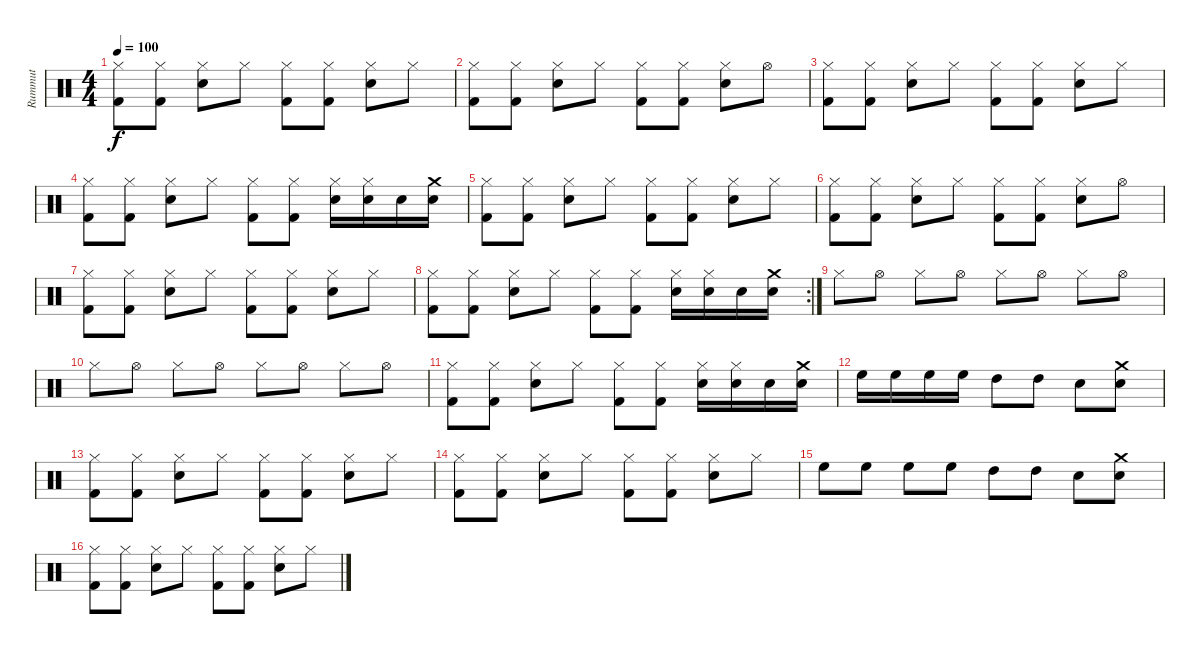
\track ("Rummut" "Rummut") {instrument percussion}
\staff {score}
\articulation defaults
\ts (4 4)
\tempo 100
\clef neutral
\ks c
("Hi-Hat (closed)" "Kick (hit) 2").8{dy f} ("Hi-Hat (closed)" "Kick (hit) 2").8 ("Hi-Hat (closed)" "Snare (hit) 2").8 "Hi-Hat (closed)".8 ("Hi-Hat (closed)" "Kick (hit) 2").8 ("Hi-Hat (closed)" "Kick (hit) 2").8 ("Hi-Hat (closed)" "Snare (hit) 2").8 "Hi-Hat (closed)".8 |
("Hi-Hat (closed)" "Kick (hit) 2").8 ("Hi-Hat (closed)" "Kick (hit) 2").8 ("Hi-Hat (closed)" "Snare (hit) 2").8 "Hi-Hat (closed)".8 ("Hi-Hat (closed)" "Kick (hit) 2").8 ("Hi-Hat (closed)" "Kick (hit) 2").8 ("Hi-Hat (closed)" "Snare (hit) 2").8 "Hi-Hat (open)".8 |
("Hi-Hat (closed)" "Kick (hit) 2").8 ("Hi-Hat (closed)" "Kick (hit) 2").8 ("Hi-Hat (closed)" "Snare (hit) 2").8 "Hi-Hat (closed)".8 ("Hi-Hat (closed)" "Kick (hit) 2").8 ("Hi-Hat (closed)" "Kick (hit) 2").8 ("Hi-Hat (closed)" "Snare (hit) 2").8 "Hi-Hat (closed)".8 |
("Hi-Hat (closed)" "Kick (hit) 2").8 ("Hi-Hat (closed)" "Kick (hit) 2").8 ("Hi-Hat (closed)" "Snare (hit) 2").8 "Hi-Hat (closed)".8 ("Hi-Hat (closed)" "Kick (hit) 2").8 ("Hi-Hat (closed)" "Kick (hit) 2").8 ("Hi-Hat (closed)" "Snare (hit) 2").16 ("Hi-Hat (closed)" "Snare (hit) 2").16 "Snare (hit) 2".16 ("Crash medium (hit)" "Snare (hit) 2").16 |
("Hi-Hat (closed)" "Kick (hit) 2").8 ("Hi-Hat (closed)" "Kick (hit) 2").8 ("Hi-Hat (closed)" "Snare (hit) 2").8 "Hi-Hat (closed)".8 ("Hi-Hat (closed)" "Kick (hit) 2").8 ("Hi-Hat (closed)" "Kick (hit) 2").8 ("Hi-Hat (closed)" "Snare (hit) 2").8 "Hi-Hat (closed)".8 |
("Hi-Hat (closed)" "Kick (hit) 2").8 ("Hi-Hat (closed)" "Kick (hit) 2").8 ("Hi-Hat (closed)" "Snare (hit) 2").8 "Hi-Hat (closed)".8 ("Hi-Hat (closed)" "Kick (hit) 2").8 ("Hi-Hat (closed)" "Kick (hit) 2").8 ("Hi-Hat (closed)" "Snare (hit) 2").8 "Hi-Hat (open)".8 |
("Hi-Hat (closed)" "Kick (hit) 2").8 ("Hi-Hat (closed)" "Kick (hit) 2").8 ("Hi-Hat (closed)" "Snare (hit) 2").8 "Hi-Hat (closed)".8 ("Hi-Hat (closed)" "Kick (hit) 2").8 ("Hi-Hat (closed)" "Kick (hit) 2").8 ("Hi-Hat (closed)" "Snare (hit) 2").8 "Hi-Hat (closed)".8 |
\rc 2
("Hi-Hat (closed)" "Kick (hit) 2").8 ("Hi-Hat (closed)" "Kick (hit) 2").8 ("Hi-Hat (closed)" "Snare (hit) 2").8 "Hi-Hat (closed)".8 ("Hi-Hat (closed)" "Kick (hit) 2").8 ("Hi-Hat (closed)" "Kick (hit) 2").8 ("Hi-Hat (closed)" "Snare (hit) 2").16 ("Hi-Hat (closed)" "Snare (hit) 2").16 "Snare (hit) 2".16 ("Crash medium (hit)" "Snare (hit) 2").16 |
"Hi-Hat (closed)".8 "Hi-Hat (open)".8 "Hi-Hat (closed)".8 "Hi-Hat (open)".8 "Hi-Hat (closed)".8 "Hi-Hat (open)".8 "Hi-Hat (closed)".8 "Hi-Hat (open)".8 |
"Hi-Hat (closed)".8 "Hi-Hat (open)".8 "Hi-Hat (closed)".8 "Hi-Hat (open)".8 "Hi-Hat (closed)".8 "Hi-Hat (open)".8 "Hi-Hat (closed)".8 "Hi-Hat (open)".8 |
("Hi-Hat (closed)" "Kick (hit) 2").8 ("Hi-Hat (closed)" "Kick (hit) 2").8 ("Hi-Hat (closed)" "Snare (hit) 2").8 "Hi-Hat (closed)".8 ("Hi-Hat (closed)" "Kick (hit) 2").8 ("Hi-Hat (closed)" "Kick (hit) 2").8 ("Hi-Hat (closed)" "Snare (hit) 2").16 ("Hi-Hat (closed)" "Snare (hit) 2").16 "Snare (hit) 2".16 ("Crash medium (hit)" "Snare (hit) 2").16 |
"High Floor Tom (hit)".16 "High Floor Tom (hit)".16 "High Floor Tom (hit)".16 "High Floor Tom (hit)".16 "High Tom (hit)".8 "High Tom (hit)".8 "Snare (hit) 2".8 ("Snare (hit) 2" "Crash medium (hit)").8 |
("Hi-Hat (closed)" "Kick (hit) 2").8 ("Hi-Hat (closed)" "Kick (hit) 2").8 ("Hi-Hat (closed)" "Snare (hit) 2").8 "Hi-Hat (closed)".8 ("Hi-Hat (closed)" "Kick (hit) 2").8 ("Hi-Hat (closed)" "Kick (hit) 2").8 ("Hi-Hat (closed)" "Snare (hit) 2").8 "Hi-Hat (closed)".8 |
("Hi-Hat (closed)" "Kick (hit) 2").8 ("Hi-Hat (closed)" "Kick (hit) 2").8 ("Hi-Hat (closed)" "Snare (hit) 2").8 "Hi-Hat (closed)".8 ("Hi-Hat (closed)" "Kick (hit) 2").8 ("Hi-Hat (closed)" "Kick (hit) 2").8 ("Hi-Hat (closed)" "Snare (hit) 2").8 "Hi-Hat (closed)".8 |
"High Floor Tom (hit)".8 "High Floor Tom (hit)".8 "High Floor Tom (hit)".8 "High Floor Tom (hit)".8 "High Tom (hit)".8 "High Tom (hit)".8 "Snare (hit) 2".8 ("Snare (hit) 2" "Crash medium (hit)").8 |
("Hi-Hat (closed)" "Kick (hit) 2").8 ("Hi-Hat (closed)" "Kick (hit) 2").8 ("Hi-Hat (closed)" "Snare (hit) 2").8 "Hi-Hat (closed)".8 ("Hi-Hat (closed)" "Kick (hit) 2").8 ("Hi-Hat (closed)" "Kick (hit) 2").8 ("Hi-Hat (closed)" "Snare (hit) 2").8 "Hi-Hat (closed)".8
